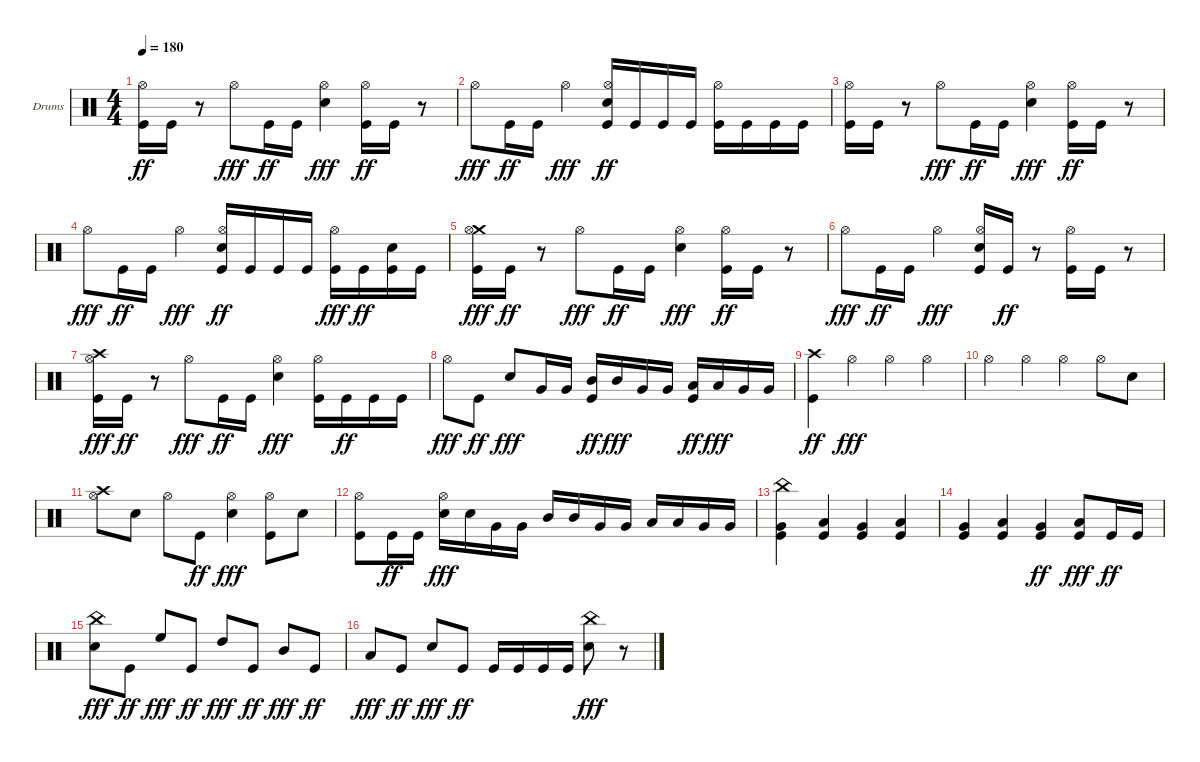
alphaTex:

\bracketExtendMode groupsimilarinstruments
\firstSystemTrackNameOrientation horizontal
\otherSystemsTrackNameOrientation horizontal
\track ("Drumkit" "Drums") {instrument percussion}
\staff {score}
\articulation defaults
\ts (4 4)
\tempo 180
\clef neutral
\ks c
("Kick (hit)" "Hi-Hat (open)").16{dy ff} "Kick (hit)".16 r.8 "Hi-Hat (open)".8{dy fff} "Kick (hit)".16{dy ff} "Kick (hit)".16 ("Snare (hit) 2" "Hi-Hat (open)").4{dy fff} ("Kick (hit)" "Hi-Hat (open)").16{dy ff} "Kick (hit)".16 r.8 |
"Hi-Hat (open)".8{dy fff} "Kick (hit)".16{dy ff} "Kick (hit)".16 "Hi-Hat (open)".4{dy fff} ("Kick (hit)" "Snare (hit) 2" "Hi-Hat (open)").16{dy ff} "Kick (hit)".16 "Kick (hit)".16 "Kick (hit)".16 ("Kick (hit)" "Hi-Hat (open)").16 "Kick (hit)".16 "Kick (hit)".16 "Kick (hit)".16 |
("Kick (hit)" "Hi-Hat (open)").16 "Kick (hit)".16 r.8 "Hi-Hat (open)".8{dy fff} "Kick (hit)".16{dy ff} "Kick (hit)".16 ("Snare (hit) 2" "Hi-Hat (open)").4{dy fff} ("Kick (hit)" "Hi-Hat (open)").16{dy ff} "Kick (hit)".16 r.8 |
"Hi-Hat (open)".8{dy fff} "Kick (hit)".16{dy ff} "Kick (hit)".16 "Hi-Hat (open)".4{dy fff} ("Kick (hit)" "Snare (hit) 2" "Hi-Hat (open)").16{dy ff} "Kick (hit)".16 "Kick (hit)".16 "Kick (hit)".16 ("Hi-Hat (open)" "Kick (hit)").16{dy fff} "Kick (hit)".16{dy ff} ("Kick (hit)" "Snare (hit) 2").16 "Kick (hit)".16 |
("Crash medium (hit)" "Kick (hit)" "Hi-Hat (open)").16{dy fff} "Kick (hit)".16{dy ff} r.8 "Hi-Hat (open)".8{dy fff} "Kick (hit)".16{dy ff} "Kick (hit)".16 ("Snare (hit) 2" "Hi-Hat (open)").4{dy fff} ("Kick (hit)" "Hi-Hat (open)").16{dy ff} "Kick (hit)".16 r.8 |
"Hi-Hat (open)".8{dy fff} "Kick (hit)".16{dy ff} "Kick (hit)".16 "Hi-Hat (open)".4{dy fff} ("Snare (hit) 2" "Kick (hit)" "Hi-Hat (open)").16 "Kick (hit)".16{dy ff} r.8 ("Kick (hit)" "Hi-Hat (open)").16 "Kick (hit)".16 r.8 |
("Crash high (hit)" "Kick (hit)" "Hi-Hat (open)").16{dy fff} "Kick (hit)".16{dy ff} r.8 "Hi-Hat (open)".8{dy fff} "Kick (hit)".16{dy ff} "Kick (hit)".16 ("Snare (hit) 2" "Hi-Hat (open)").4{dy fff} ("Hi-Hat (open)" "Kick (hit)").16 "Kick (hit)".16{dy ff} "Kick (hit)".16 "Kick (hit)".16 |
"Hi-Hat (open)".8{dy fff} "Kick (hit)".8{dy ff} "Snare (hit) 2".8{dy fff} "Very Low Tom (hit)".16 "Very Low Tom (hit)".16 ("Kick (hit)" "Mid Tom (hit)").16{dy ff} "Mid Tom (hit)".16{dy fff} "Very Low Tom (hit)".16 "Very Low Tom (hit)".16 ("Kick (hit)" "Low Tom (hit)").16{dy ff} "Low Tom (hit)".16{dy fff} "Very Low Tom (hit)".16 "Very Low Tom (hit)".16 |
("Kick (hit)" "Crash high (hit)").4{dy ff} "Hi-Hat (open)".4{dy fff} "Hi-Hat (open)".4 "Hi-Hat (open)".4 |
"Hi-Hat (open)".4 "Hi-Hat (open)".4 "Hi-Hat (open)".4 "Hi-Hat (open)".8 "Snare (hit) 2".8 |
("Hi-Hat (open)" "Crash high (hit)").8 "Snare (hit) 2".8 "Hi-Hat (open)".8 "Kick (hit)".8{dy ff} ("Hi-Hat (open)" "Snare (hit) 2").4{dy fff} ("Hi-Hat (open)" "Kick (hit)").8 "Snare (hit) 2".8 |
("Hi-Hat (open)" "Kick (hit)").8 "Kick (hit)".16{dy ff} "Kick (hit)".16 ("Hi-Hat (open)" "Snare (hit) 2").16{dy fff} "Snare (hit) 2".16 "Very Low Tom (hit)".16 "Very Low Tom (hit)".16 "Mid Tom (hit)".16 "Mid Tom (hit)".16 "Very Low Tom (hit)".16 "Very Low Tom (hit)".16 "Low Tom (hit)".16 "Low Tom (hit)".16 "Very Low Tom (hit)".16 "Very Low Tom (hit)".16 |
("Very Low Tom (hit)" "Kick (hit)" "China (hit)").4 ("Low Tom (hit)" "Kick (hit)").4 ("Very Low Tom (hit)" "Kick (hit)").4 ("Low Tom (hit)" "Kick (hit)").4 |
("Very Low Tom (hit)" "Kick (hit)").4 ("Low Tom (hit)" "Kick (hit)").4 ("Kick (hit)" "Very Low Tom (hit)").4{dy ff} ("Low Tom (hit)" "Kick (hit)").8{dy fff} "Kick (hit)".16{dy ff} "Kick (hit)".16 |
("Snare (hit) 2" "China (hit)").8{dy fff} "Kick (hit)".8{dy ff} "High Floor Tom (hit)".8{dy fff} "Kick (hit)".8{dy ff} "High Tom (hit)".8{dy fff} "Kick (hit)".8{dy ff} "Mid Tom (hit)".8{dy fff} "Kick (hit)".8{dy ff} |
"Low Tom (hit)".8{dy fff} "Kick (hit)".8{dy ff} "Snare (hit) 2".8{dy fff} "Kick (hit)".8{dy ff} "Kick (hit)".16 "Kick (hit)".16 "Kick (hit)".16 "Kick (hit)".16 ("Snare (hit) 2" "China (hit)").8{dy fff} r.8
